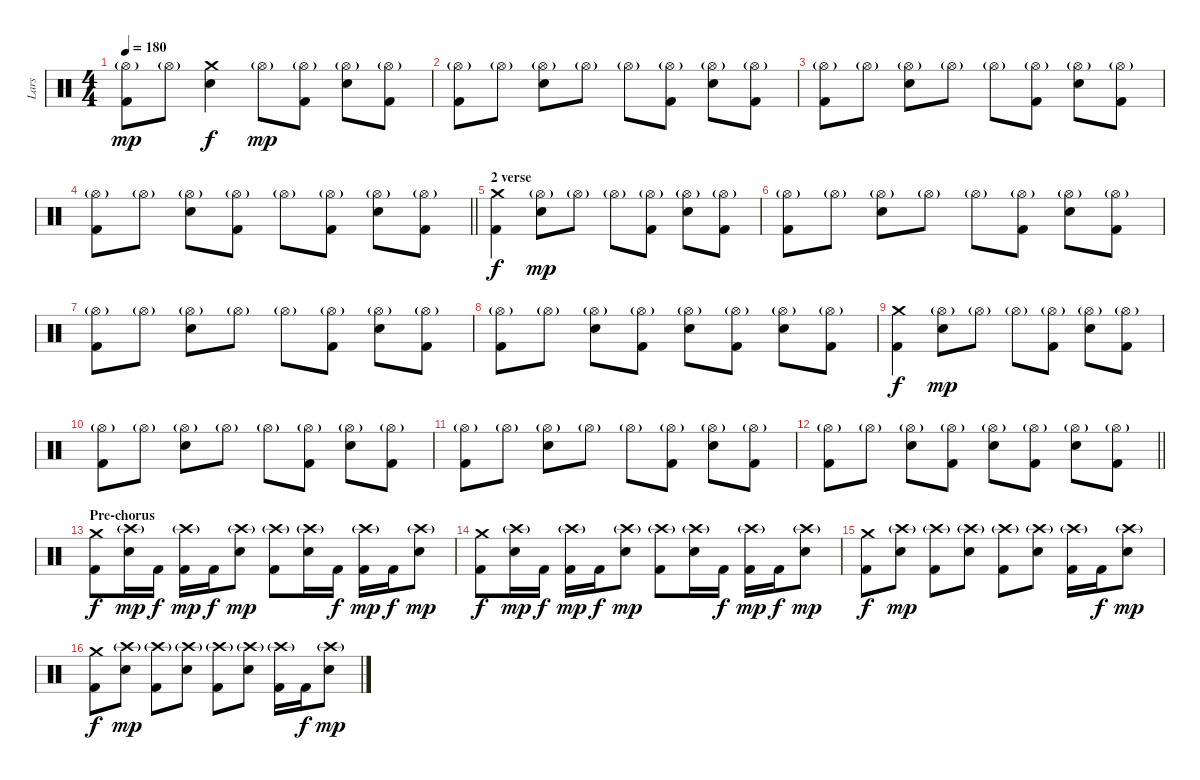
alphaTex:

\track ("Lars" "Lars") {instrument percussion}
\staff {score}
\articulation defaults
\ts (4 4)
\tempo 180
\clef neutral
\ks c
("Hi-Hat (open)"{g} "Kick (hit) 2").8{dy mp} "Hi-Hat (open)"{g}.8 ("Crash medium (hit)" "Electric Snare (hit)").4{dy f} "Hi-Hat (open)"{g}.8{dy mp} ("Hi-Hat (open)"{g} "Kick (hit) 2").8 ("Hi-Hat (open)"{g} "Electric Snare (hit)").8 ("Hi-Hat (open)"{g} "Kick (hit) 2").8 |
("Hi-Hat (open)"{g} "Kick (hit) 2").8 "Hi-Hat (open)"{g}.8 ("Hi-Hat (open)"{g} "Electric Snare (hit)").8 "Hi-Hat (open)"{g}.8 "Hi-Hat (open)"{g}.8 ("Hi-Hat (open)"{g} "Kick (hit) 2").8 ("Hi-Hat (open)"{g} "Electric Snare (hit)").8 ("Hi-Hat (open)"{g} "Kick (hit) 2").8 |
("Hi-Hat (open)"{g} "Kick (hit) 2").8 "Hi-Hat (open)"{g}.8 ("Hi-Hat (open)"{g} "Electric Snare (hit)").8 "Hi-Hat (open)"{g}.8 "Hi-Hat (open)"{g}.8 ("Hi-Hat (open)"{g} "Kick (hit) 2").8 ("Hi-Hat (open)"{g} "Electric Snare (hit)").8 ("Hi-Hat (open)"{g} "Kick (hit) 2").8 |
\barLineRight lightlight
("Hi-Hat (open)"{g} "Kick (hit) 2").8 "Hi-Hat (open)"{g}.8 ("Hi-Hat (open)"{g} "Electric Snare (hit)").8 ("Hi-Hat (open)"{g} "Kick (hit) 2").8 "Hi-Hat (open)"{g}.8 ("Hi-Hat (open)"{g} "Kick (hit) 2").8 ("Hi-Hat (open)"{g} "Electric Snare (hit)").8 ("Hi-Hat (open)"{g} "Kick (hit) 2").8 |
\section ("" "2 verse")
("Crash medium (hit)" "Kick (hit) 2").4{dy f} ("Hi-Hat (open)"{g} "Electric Snare (hit)").8{dy mp} "Hi-Hat (open)"{g}.8 "Hi-Hat (open)"{g}.8 ("Hi-Hat (open)"{g} "Kick (hit) 2").8 ("Hi-Hat (open)"{g} "Electric Snare (hit)").8 ("Hi-Hat (open)"{g} "Kick (hit) 2").8 |
("Hi-Hat (open)"{g} "Kick (hit) 2").8 "Hi-Hat (open)"{g}.8 ("Hi-Hat (open)"{g} "Electric Snare (hit)").8 "Hi-Hat (open)"{g}.8 "Hi-Hat (open)"{g}.8 ("Hi-Hat (open)"{g} "Kick (hit) 2").8 ("Hi-Hat (open)"{g} "Electric Snare (hit)").8 ("Hi-Hat (open)"{g} "Kick (hit) 2").8 |
("Hi-Hat (open)"{g} "Kick (hit) 2").8 "Hi-Hat (open)"{g}.8 ("Hi-Hat (open)"{g} "Electric Snare (hit)").8 "Hi-Hat (open)"{g}.8 "Hi-Hat (open)"{g}.8 ("Hi-Hat (open)"{g} "Kick (hit) 2").8 ("Hi-Hat (open)"{g} "Electric Snare (hit)").8 ("Hi-Hat (open)"{g} "Kick (hit) 2").8 |
("Hi-Hat (open)"{g} "Kick (hit) 2").8 "Hi-Hat (open)"{g}.8 ("Hi-Hat (open)"{g} "Electric Snare (hit)").8 ("Hi-Hat (open)"{g} "Kick (hit) 2").8 ("Hi-Hat (open)"{g} "Electric Snare (hit)").8 ("Hi-Hat (open)"{g} "Kick (hit) 2").8 ("Hi-Hat (open)"{g} "Electric Snare (hit)").8 ("Hi-Hat (open)"{g} "Kick (hit) 2").8 |
("Crash medium (hit)" "Kick (hit) 2").4{dy f} ("Hi-Hat (open)"{g} "Electric Snare (hit)").8{dy mp} "Hi-Hat (open)"{g}.8 "Hi-Hat (open)"{g}.8 ("Hi-Hat (open)"{g} "Kick (hit) 2").8 ("Hi-Hat (open)"{g} "Electric Snare (hit)").8 ("Hi-Hat (open)"{g} "Kick (hit) 2").8 |
("Hi-Hat (open)"{g} "Kick (hit) 2").8 "Hi-Hat (open)"{g}.8 ("Hi-Hat (open)"{g} "Electric Snare (hit)").8 "Hi-Hat (open)"{g}.8 "Hi-Hat (open)"{g}.8 ("Hi-Hat (open)"{g} "Kick (hit) 2").8 ("Hi-Hat (open)"{g} "Electric Snare (hit)").8 ("Hi-Hat (open)"{g} "Kick (hit) 2").8 |
("Hi-Hat (open)"{g} "Kick (hit) 2").8 "Hi-Hat (open)"{g}.8 ("Hi-Hat (open)"{g} "Electric Snare (hit)").8 "Hi-Hat (open)"{g}.8 "Hi-Hat (open)"{g}.8 ("Hi-Hat (open)"{g} "Kick (hit) 2").8 ("Hi-Hat (open)"{g} "Electric Snare (hit)").8 ("Hi-Hat (open)"{g} "Kick (hit) 2").8 |
\barLineRight lightlight
("Hi-Hat (open)"{g} "Kick (hit) 2").8 "Hi-Hat (open)"{g}.8 ("Hi-Hat (open)"{g} "Electric Snare (hit)").8 ("Hi-Hat (open)"{g} "Kick (hit) 2").8 ("Hi-Hat (open)"{g} "Electric Snare (hit)").8 ("Hi-Hat (open)"{g} "Kick (hit) 2").8 ("Hi-Hat (open)"{g} "Electric Snare (hit)").8 ("Hi-Hat (open)"{g} "Kick (hit) 2").8 |
\section ("" "Pre-chorus")
("Crash medium (hit)" "Kick (hit) 2").8{dy f} ("Crash high (hit)"{g} "Electric Snare (hit)").16{dy mp} "Kick (hit) 2".16{dy f} ("Crash high (hit)"{g} "Kick (hit) 2").16{dy mp} "Kick (hit) 2".16{dy f} ("Crash high (hit)"{g} "Electric Snare (hit)").8{dy mp} ("Crash high (hit)"{g} "Kick (hit) 2").8 ("Crash high (hit)"{g} "Electric Snare (hit)").16 "Kick (hit) 2".16{dy f} ("Crash high (hit)"{g} "Kick (hit) 2").16{dy mp} "Kick (hit) 2".16{dy f} ("Crash high (hit)"{g} "Electric Snare (hit)").8{dy mp} |
("Crash medium (hit)" "Kick (hit) 2").8{dy f} ("Crash high (hit)"{g} "Electric Snare (hit)").16{dy mp} "Kick (hit) 2".16{dy f} ("Crash high (hit)"{g} "Kick (hit) 2").16{dy mp} "Kick (hit) 2".16{dy f} ("Crash high (hit)"{g} "Electric Snare (hit)").8{dy mp} ("Crash high (hit)"{g} "Kick (hit) 2").8 ("Crash high (hit)"{g} "Electric Snare (hit)").16 "Kick (hit) 2".16{dy f} ("Crash high (hit)"{g} "Kick (hit) 2").16{dy mp} "Kick (hit) 2".16{dy f} ("Crash high (hit)"{g} "Electric Snare (hit)").8{dy mp} |
("Crash medium (hit)" "Kick (hit) 2").8{dy f} ("Crash high (hit)"{g} "Electric Snare (hit)").8{dy mp} ("Crash high (hit)"{g} "Kick (hit) 2").8 ("Crash high (hit)"{g} "Electric Snare (hit)").8 ("Crash high (hit)"{g} "Kick (hit) 2").8 ("Crash high (hit)"{g} "Electric Snare (hit)").8 ("Crash high (hit)"{g} "Kick (hit) 2").16 "Kick (hit) 2".16{dy f} ("Crash high (hit)"{g} "Electric Snare (hit)").8{dy mp} |
("Crash medium (hit)" "Kick (hit) 2").8{dy f} ("Crash high (hit)"{g} "Electric Snare (hit)").8{dy mp} ("Crash high (hit)"{g} "Kick (hit) 2").8 ("Crash high (hit)"{g} "Electric Snare (hit)").8 ("Crash high (hit)"{g} "Kick (hit) 2").8 ("Crash high (hit)"{g} "Electric Snare (hit)").8 ("Crash high (hit)"{g} "Kick (hit) 2").16 "Kick (hit) 2".16{dy f} ("Crash high (hit)"{g} "Electric Snare (hit)").8{dy mp}
